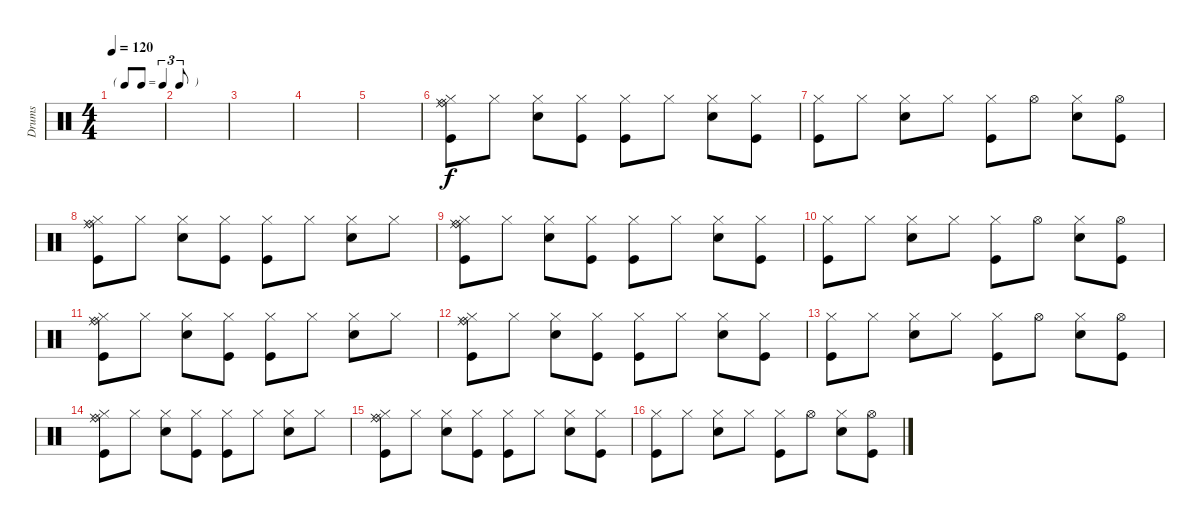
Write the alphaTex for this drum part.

\track ("Drums" "Drums") {instrument percussion}
\staff {score}
\articulation defaults
\ts (4 4)
\tf triplet8th
\tempo 120
\clef neutral
\ks c
|
|
|
|
|
("Kick (hit)" "Hi-Hat (closed)" "Ride (middle)" "Ride (bell)").8 "Hi-Hat (closed)".8 ("Snare (hit) 2" "Hi-Hat (closed)").8 ("Kick (hit)" "Hi-Hat (closed)").8 ("Kick (hit)" "Hi-Hat (closed)").8 "Hi-Hat (closed)".8 ("Snare (hit) 2" "Hi-Hat (closed)").8 ("Kick (hit)" "Hi-Hat (closed)").8 |
("Kick (hit)" "Hi-Hat (closed)").8 "Hi-Hat (closed)".8 ("Snare (hit) 2" "Hi-Hat (closed)").8 "Hi-Hat (closed)".8 ("Kick (hit)" "Hi-Hat (closed)").8 "Hi-Hat (open)".8 ("Snare (hit) 2" "Hi-Hat (closed)").8 ("Kick (hit)" "Hi-Hat (open)").8 |
("Kick (hit)" "Hi-Hat (closed)" "Ride (middle)" "Ride (bell)").8 "Hi-Hat (closed)".8 ("Snare (hit) 2" "Hi-Hat (closed)").8 ("Kick (hit)" "Hi-Hat (closed)").8 ("Kick (hit)" "Hi-Hat (closed)").8 "Hi-Hat (closed)".8 ("Snare (hit) 2" "Hi-Hat (closed)").8 "Hi-Hat (closed)".8 |
("Kick (hit)" "Hi-Hat (closed)" "Ride (middle)" "Ride (bell)").8 "Hi-Hat (closed)".8 ("Snare (hit) 2" "Hi-Hat (closed)").8 ("Kick (hit)" "Hi-Hat (closed)").8 ("Kick (hit)" "Hi-Hat (closed)").8 "Hi-Hat (closed)".8 ("Snare (hit) 2" "Hi-Hat (closed)").8 ("Kick (hit)" "Hi-Hat (closed)").8 |
("Kick (hit)" "Hi-Hat (closed)").8 "Hi-Hat (closed)".8 ("Snare (hit) 2" "Hi-Hat (closed)").8 "Hi-Hat (closed)".8 ("Kick (hit)" "Hi-Hat (closed)").8 "Hi-Hat (open)".8 ("Snare (hit) 2" "Hi-Hat (closed)").8 ("Kick (hit)" "Hi-Hat (open)").8 |
("Kick (hit)" "Hi-Hat (closed)" "Ride (middle)" "Ride (bell)").8 "Hi-Hat (closed)".8 ("Snare (hit) 2" "Hi-Hat (closed)").8 ("Kick (hit)" "Hi-Hat (closed)").8 ("Kick (hit)" "Hi-Hat (closed)").8 "Hi-Hat (closed)".8 ("Snare (hit) 2" "Hi-Hat (closed)").8 "Hi-Hat (closed)".8 |
("Kick (hit)" "Hi-Hat (closed)" "Ride (middle)" "Ride (bell)").8 "Hi-Hat (closed)".8 ("Snare (hit) 2" "Hi-Hat (closed)").8 ("Kick (hit)" "Hi-Hat (closed)").8 ("Kick (hit)" "Hi-Hat (closed)").8 "Hi-Hat (closed)".8 ("Snare (hit) 2" "Hi-Hat (closed)").8 ("Kick (hit)" "Hi-Hat (closed)").8 |
("Kick (hit)" "Hi-Hat (closed)").8 "Hi-Hat (closed)".8 ("Snare (hit) 2" "Hi-Hat (closed)").8 "Hi-Hat (closed)".8 ("Kick (hit)" "Hi-Hat (closed)").8 "Hi-Hat (open)".8 ("Snare (hit) 2" "Hi-Hat (closed)").8 ("Kick (hit)" "Hi-Hat (open)").8 |
("Kick (hit)" "Hi-Hat (closed)" "Ride (middle)" "Ride (bell)").8 "Hi-Hat (closed)".8 ("Snare (hit) 2" "Hi-Hat (closed)").8 ("Kick (hit)" "Hi-Hat (closed)").8 ("Kick (hit)" "Hi-Hat (closed)").8 "Hi-Hat (closed)".8 ("Snare (hit) 2" "Hi-Hat (closed)").8 "Hi-Hat (closed)".8 |
("Kick (hit)" "Hi-Hat (closed)" "Ride (middle)" "Ride (bell)").8 "Hi-Hat (closed)".8 ("Snare (hit) 2" "Hi-Hat (closed)").8 ("Kick (hit)" "Hi-Hat (closed)").8 ("Kick (hit)" "Hi-Hat (closed)").8 "Hi-Hat (closed)".8 ("Snare (hit) 2" "Hi-Hat (closed)").8 ("Kick (hit)" "Hi-Hat (closed)").8 |
("Kick (hit)" "Hi-Hat (closed)").8 "Hi-Hat (closed)".8 ("Snare (hit) 2" "Hi-Hat (closed)").8 "Hi-Hat (closed)".8 ("Kick (hit)" "Hi-Hat (closed)").8 "Hi-Hat (open)".8 ("Snare (hit) 2" "Hi-Hat (closed)").8 ("Kick (hit)" "Hi-Hat (open)").8
